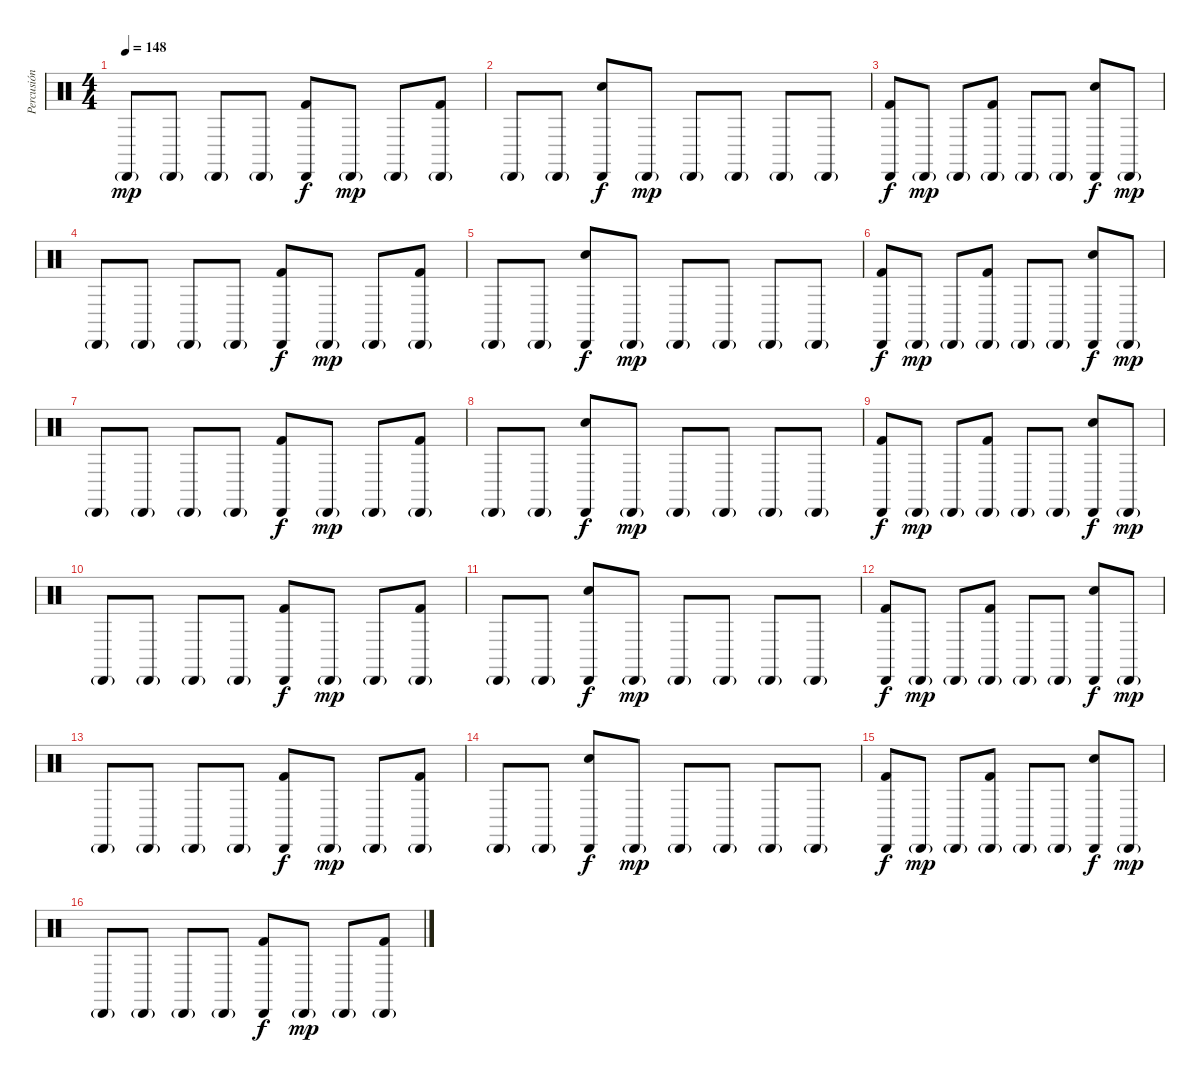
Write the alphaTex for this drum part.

\track ("Percusión" "Percusión") {instrument percussion}
\staff {score}
\articulation defaults
\ts (4 4)
\tempo 148
\clef neutral
\ks c "Cabasa (hit)"{g}.8{dy mp} "Cabasa (hit)"{g}.8 "Cabasa (hit)"{g}.8 "Cabasa (hit)"{g}.8
("Kick (hit) 2" "Cabasa (hit)").8{dy f} "Cabasa (hit)"{g}.8{dy mp} "Cabasa (hit)"{g}.8 ("Kick (hit) 2" "Cabasa (hit)"{g}).8 |
"Cabasa (hit)"{g}.8 "Cabasa (hit)"{g}.8 ("Electric Snare (hit)" "Cabasa (hit)").8{dy f} "Cabasa (hit)"{g}.8{dy mp} "Cabasa (hit)"{g}.8 "Cabasa (hit)"{g}.8 "Cabasa (hit)"{g}.8 "Cabasa (hit)"{g}.8 |
("Kick (hit) 2" "Cabasa (hit)").8{dy f} "Cabasa (hit)"{g}.8{dy mp} "Cabasa (hit)"{g}.8 ("Kick (hit) 2" "Cabasa (hit)"{g}).8 "Cabasa (hit)"{g}.8 "Cabasa (hit)"{g}.8 ("Electric Snare (hit)" "Cabasa (hit)").8{dy f} "Cabasa (hit)"{g}.8{dy mp} |
"Cabasa (hit)"{g}.8 "Cabasa (hit)"{g}.8 "Cabasa (hit)"{g}.8 "Cabasa (hit)"{g}.8 ("Kick (hit) 2" "Cabasa (hit)").8{dy f} "Cabasa (hit)"{g}.8{dy mp} "Cabasa (hit)"{g}.8 ("Kick (hit) 2" "Cabasa (hit)"{g}).8 |
"Cabasa (hit)"{g}.8 "Cabasa (hit)"{g}.8 ("Electric Snare (hit)" "Cabasa (hit)").8{dy f} "Cabasa (hit)"{g}.8{dy mp} "Cabasa (hit)"{g}.8 "Cabasa (hit)"{g}.8 "Cabasa (hit)"{g}.8 "Cabasa (hit)"{g}.8 |
("Kick (hit) 2" "Cabasa (hit)").8{dy f} "Cabasa (hit)"{g}.8{dy mp} "Cabasa (hit)"{g}.8 ("Kick (hit) 2" "Cabasa (hit)"{g}).8 "Cabasa (hit)"{g}.8 "Cabasa (hit)"{g}.8 ("Electric Snare (hit)" "Cabasa (hit)").8{dy f} "Cabasa (hit)"{g}.8{dy mp} |
"Cabasa (hit)"{g}.8 "Cabasa (hit)"{g}.8 "Cabasa (hit)"{g}.8 "Cabasa (hit)"{g}.8 ("Kick (hit) 2" "Cabasa (hit)").8{dy f} "Cabasa (hit)"{g}.8{dy mp} "Cabasa (hit)"{g}.8 ("Kick (hit) 2" "Cabasa (hit)"{g}).8 |
"Cabasa (hit)"{g}.8 "Cabasa (hit)"{g}.8 ("Electric Snare (hit)" "Cabasa (hit)").8{dy f} "Cabasa (hit)"{g}.8{dy mp} "Cabasa (hit)"{g}.8 "Cabasa (hit)"{g}.8 "Cabasa (hit)"{g}.8 "Cabasa (hit)"{g}.8 |
("Kick (hit) 2" "Cabasa (hit)").8{dy f} "Cabasa (hit)"{g}.8{dy mp} "Cabasa (hit)"{g}.8 ("Kick (hit) 2" "Cabasa (hit)"{g}).8 "Cabasa (hit)"{g}.8 "Cabasa (hit)"{g}.8 ("Electric Snare (hit)" "Cabasa (hit)").8{dy f} "Cabasa (hit)"{g}.8{dy mp} |
"Cabasa (hit)"{g}.8 "Cabasa (hit)"{g}.8 "Cabasa (hit)"{g}.8 "Cabasa (hit)"{g}.8 ("Kick (hit) 2" "Cabasa (hit)").8{dy f} "Cabasa (hit)"{g}.8{dy mp} "Cabasa (hit)"{g}.8 ("Kick (hit) 2" "Cabasa (hit)"{g}).8 |
"Cabasa (hit)"{g}.8 "Cabasa (hit)"{g}.8 ("Electric Snare (hit)" "Cabasa (hit)").8{dy f} "Cabasa (hit)"{g}.8{dy mp} "Cabasa (hit)"{g}.8 "Cabasa (hit)"{g}.8 "Cabasa (hit)"{g}.8 "Cabasa (hit)"{g}.8 |
("Kick (hit) 2" "Cabasa (hit)").8{dy f} "Cabasa (hit)"{g}.8{dy mp} "Cabasa (hit)"{g}.8 ("Kick (hit) 2" "Cabasa (hit)"{g}).8 "Cabasa (hit)"{g}.8 "Cabasa (hit)"{g}.8 ("Electric Snare (hit)" "Cabasa (hit)").8{dy f} "Cabasa (hit)"{g}.8{dy mp} |
"Cabasa (hit)"{g}.8 "Cabasa (hit)"{g}.8 "Cabasa (hit)"{g}.8 "Cabasa (hit)"{g}.8 ("Kick (hit) 2" "Cabasa (hit)").8{dy f} "Cabasa (hit)"{g}.8{dy mp} "Cabasa (hit)"{g}.8 ("Kick (hit) 2" "Cabasa (hit)"{g}).8 |
"Cabasa (hit)"{g}.8 "Cabasa (hit)"{g}.8 ("Electric Snare (hit)" "Cabasa (hit)").8{dy f} "Cabasa (hit)"{g}.8{dy mp} "Cabasa (hit)"{g}.8 "Cabasa (hit)"{g}.8 "Cabasa (hit)"{g}.8 "Cabasa (hit)"{g}.8 |
("Kick (hit) 2" "Cabasa (hit)").8{dy f} "Cabasa (hit)"{g}.8{dy mp} "Cabasa (hit)"{g}.8 ("Kick (hit) 2" "Cabasa (hit)"{g}).8 "Cabasa (hit)"{g}.8 "Cabasa (hit)"{g}.8 ("Electric Snare (hit)" "Cabasa (hit)").8{dy f} "Cabasa (hit)"{g}.8{dy mp} |
"Cabasa (hit)"{g}.8 "Cabasa (hit)"{g}.8 "Cabasa (hit)"{g}.8 "Cabasa (hit)"{g}.8 ("Kick (hit) 2" "Cabasa (hit)").8{dy f} "Cabasa (hit)"{g}.8{dy mp} "Cabasa (hit)"{g}.8 ("Kick (hit) 2" "Cabasa (hit)"{g}).8
